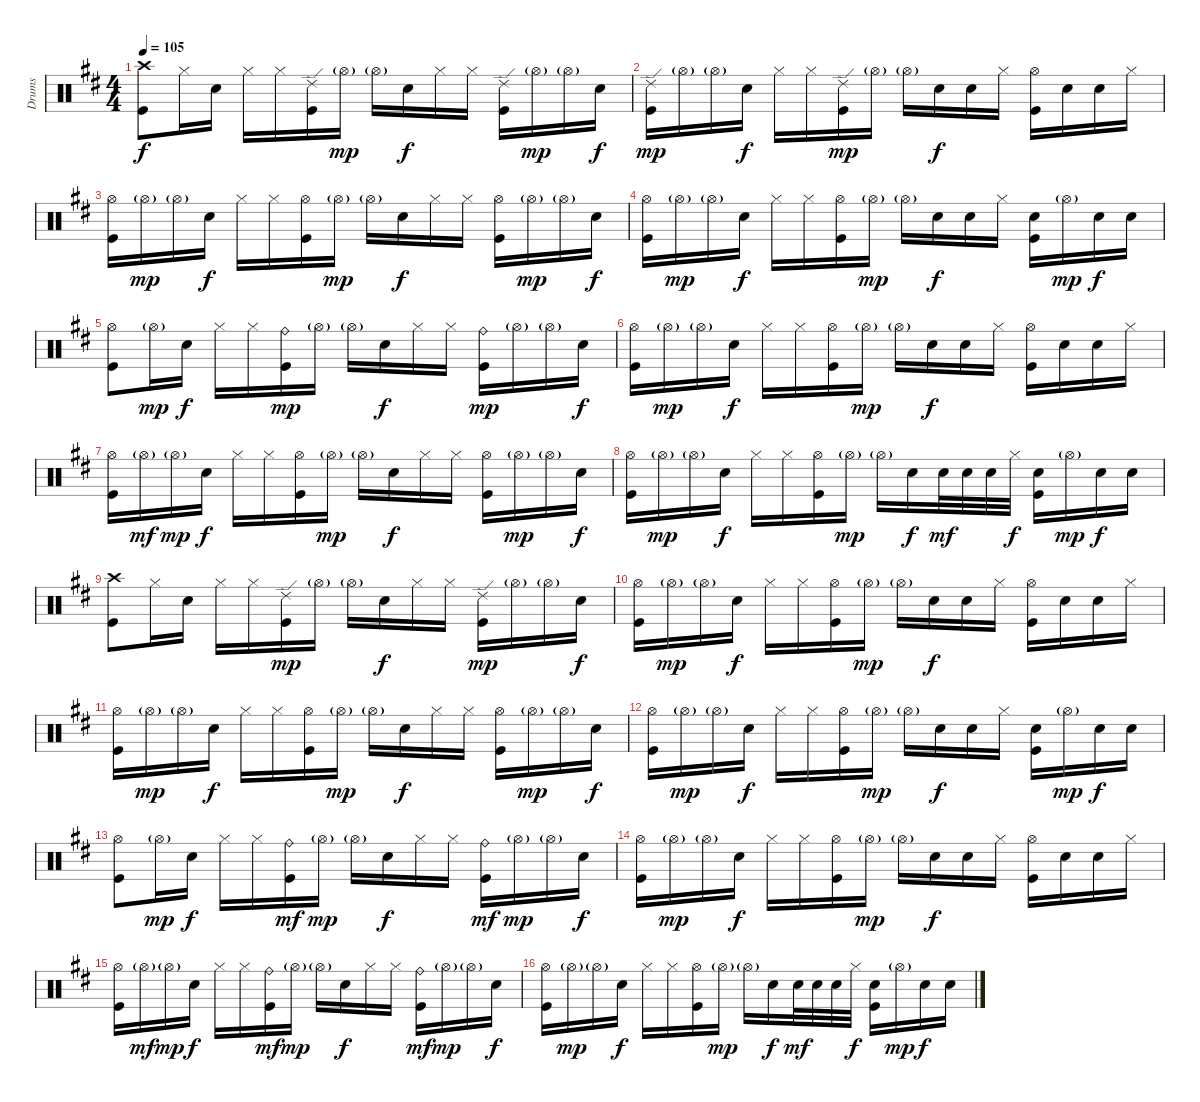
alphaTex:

\track ("Drums" "Drums") {instrument percussion}
\staff {score}
\articulation defaults
\ts (4 4)
\tempo 105
\clef neutral
\ks d
("Crash high (hit)" "Kick (hit)").8{dy f} "Hi-Hat (closed)".16 "Electric Snare (hit)".16 "Hi-Hat (closed)".16 "Hi-Hat (closed)".16 ("Ride (edge) 2" "Kick (hit)").16 "Hi-Hat (open)"{g}.16{dy mp} "Hi-Hat (open)"{g}.16 "Electric Snare (hit)".16{dy f} "Hi-Hat (closed)".16 "Hi-Hat (closed)".16 ("Ride (edge) 2" "Kick (hit)").16 "Hi-Hat (open)"{g}.16{dy mp} "Hi-Hat (open)"{g}.16 "Electric Snare (hit)".16{dy f} |
("Ride (edge) 2" "Kick (hit)").16{dy mp} "Hi-Hat (open)"{g}.16 "Hi-Hat (open)"{g}.16 "Electric Snare (hit)".16{dy f} "Hi-Hat (closed)".16 "Hi-Hat (closed)".16 ("Ride (edge) 2" "Kick (hit)").16{dy mp} "Hi-Hat (open)"{g}.16 "Hi-Hat (open)"{g}.16 "Electric Snare (hit)".16{dy f} "Electric Snare (hit)".16 "Hi-Hat (closed)".16 ("Hi-Hat (open)" "Kick (hit)").16 "Electric Snare (hit)".16 "Electric Snare (hit)".16 "Hi-Hat (closed)".16 |
("Hi-Hat (open)" "Kick (hit)").16 "Hi-Hat (open)"{g}.16{dy mp} "Hi-Hat (open)"{g}.16 "Electric Snare (hit)".16{dy f} "Hi-Hat (closed)".16 "Hi-Hat (closed)".16 ("Hi-Hat (open)" "Kick (hit)").16 "Hi-Hat (open)"{g}.16{dy mp} "Hi-Hat (open)"{g}.16 "Electric Snare (hit)".16{dy f} "Hi-Hat (closed)".16 "Hi-Hat (closed)".16 ("Hi-Hat (open)" "Kick (hit)").16 "Hi-Hat (open)"{g}.16{dy mp} "Hi-Hat (open)"{g}.16 "Electric Snare (hit)".16{dy f} |
("Hi-Hat (open)" "Kick (hit)").16 "Hi-Hat (open)"{g}.16{dy mp} "Hi-Hat (open)"{g}.16 "Electric Snare (hit)".16{dy f} "Hi-Hat (closed)".16 "Hi-Hat (closed)".16 ("Hi-Hat (open)" "Kick (hit)").16 "Hi-Hat (open)"{g}.16{dy mp} "Hi-Hat (open)"{g}.16 "Electric Snare (hit)".16{dy f} "Electric Snare (hit)".16 "Hi-Hat (closed)".16 ("Electric Snare (hit)" "Kick (hit)").16 "Hi-Hat (open)"{g}.16{dy mp} "Electric Snare (hit)".16{dy f} "Electric Snare (hit)".16 |
("Hi-Hat (open)" "Kick (hit)").8 "Hi-Hat (open)"{g}.16{dy mp} "Electric Snare (hit)".16{dy f} "Hi-Hat (closed)".16 "Hi-Hat (closed)".16 ("Ride (bell)" "Kick (hit)").16{dy mp} "Hi-Hat (open)"{g}.16 "Hi-Hat (open)"{g}.16 "Electric Snare (hit)".16{dy f} "Hi-Hat (closed)".16 "Hi-Hat (closed)".16 ("Ride (bell)" "Kick (hit)").16{dy mp} "Hi-Hat (open)"{g}.16 "Hi-Hat (open)"{g}.16 "Electric Snare (hit)".16{dy f} |
("Hi-Hat (open)" "Kick (hit)").16 "Hi-Hat (open)"{g}.16{dy mp} "Hi-Hat (open)"{g}.16 "Electric Snare (hit)".16{dy f} "Hi-Hat (closed)".16 "Hi-Hat (closed)".16 ("Hi-Hat (open)" "Kick (hit)").16 "Hi-Hat (open)"{g}.16{dy mp} "Hi-Hat (open)"{g}.16 "Electric Snare (hit)".16{dy f} "Electric Snare (hit)".16 "Hi-Hat (closed)".16 ("Hi-Hat (open)" "Kick (hit)").16 "Electric Snare (hit)".16 "Electric Snare (hit)".16 "Hi-Hat (closed)".16 |
("Hi-Hat (open)" "Kick (hit)").16 "Hi-Hat (open)"{g}.16{dy mf} "Hi-Hat (open)"{g}.16{dy mp} "Electric Snare (hit)".16{dy f} "Hi-Hat (closed)".16 "Hi-Hat (closed)".16 ("Hi-Hat (open)" "Kick (hit)").16 "Hi-Hat (open)"{g}.16{dy mp} "Hi-Hat (open)"{g}.16 "Electric Snare (hit)".16{dy f} "Hi-Hat (closed)".16 "Hi-Hat (closed)".16 ("Hi-Hat (open)" "Kick (hit)").16 "Hi-Hat (open)"{g}.16{dy mp} "Hi-Hat (open)"{g}.16 "Electric Snare (hit)".16{dy f} |
("Hi-Hat (open)" "Kick (hit)").16 "Hi-Hat (open)"{g}.16{dy mp} "Hi-Hat (open)"{g}.16 "Electric Snare (hit)".16{dy f} "Hi-Hat (closed)".16 "Hi-Hat (closed)".16 ("Hi-Hat (open)" "Kick (hit)").16 "Hi-Hat (open)"{g}.16{dy mp} "Hi-Hat (open)"{g}.16 "Electric Snare (hit)".16{dy f} "Electric Snare (hit)".32{dy mf} "Electric Snare (hit)".32 "Electric Snare (hit)".32 "Hi-Hat (closed)".32{dy f} ("Electric Snare (hit)" "Kick (hit)").16 "Hi-Hat (open)"{g}.16{dy mp} "Electric Snare (hit)".16{dy f} "Electric Snare (hit)".16 |
("Crash high (hit)" "Kick (hit)").8 "Hi-Hat (closed)".16 "Electric Snare (hit)".16 "Hi-Hat (closed)".16 "Hi-Hat (closed)".16 ("Ride (edge) 2" "Kick (hit)").16{dy mp} "Hi-Hat (open)"{g}.16 "Hi-Hat (open)"{g}.16 "Electric Snare (hit)".16{dy f} "Hi-Hat (closed)".16 "Hi-Hat (closed)".16 ("Ride (edge) 2" "Kick (hit)").16{dy mp} "Hi-Hat (open)"{g}.16 "Hi-Hat (open)"{g}.16 "Electric Snare (hit)".16{dy f} |
("Hi-Hat (open)" "Kick (hit)").16 "Hi-Hat (open)"{g}.16{dy mp} "Hi-Hat (open)"{g}.16 "Electric Snare (hit)".16{dy f} "Hi-Hat (closed)".16 "Hi-Hat (closed)".16 ("Hi-Hat (open)" "Kick (hit)").16 "Hi-Hat (open)"{g}.16{dy mp} "Hi-Hat (open)"{g}.16 "Electric Snare (hit)".16{dy f} "Electric Snare (hit)".16 "Hi-Hat (closed)".16 ("Hi-Hat (open)" "Kick (hit)").16 "Electric Snare (hit)".16 "Electric Snare (hit)".16 "Hi-Hat (closed)".16 |
("Hi-Hat (open)" "Kick (hit)").16 "Hi-Hat (open)"{g}.16{dy mp} "Hi-Hat (open)"{g}.16 "Electric Snare (hit)".16{dy f} "Hi-Hat (closed)".16 "Hi-Hat (closed)".16 ("Hi-Hat (open)" "Kick (hit)").16 "Hi-Hat (open)"{g}.16{dy mp} "Hi-Hat (open)"{g}.16 "Electric Snare (hit)".16{dy f} "Hi-Hat (closed)".16 "Hi-Hat (closed)".16 ("Hi-Hat (open)" "Kick (hit)").16 "Hi-Hat (open)"{g}.16{dy mp} "Hi-Hat (open)"{g}.16 "Electric Snare (hit)".16{dy f} |
("Hi-Hat (open)" "Kick (hit)").16 "Hi-Hat (open)"{g}.16{dy mp} "Hi-Hat (open)"{g}.16 "Electric Snare (hit)".16{dy f} "Hi-Hat (closed)".16 "Hi-Hat (closed)".16 ("Hi-Hat (open)" "Kick (hit)").16 "Hi-Hat (open)"{g}.16{dy mp} "Hi-Hat (open)"{g}.16 "Electric Snare (hit)".16{dy f} "Electric Snare (hit)".16 "Hi-Hat (closed)".16 ("Electric Snare (hit)" "Kick (hit)").16 "Hi-Hat (open)"{g}.16{dy mp} "Electric Snare (hit)".16{dy f} "Electric Snare (hit)".16 |
("Hi-Hat (open)" "Kick (hit)").8 "Hi-Hat (open)"{g}.16{dy mp} "Electric Snare (hit)".16{dy f} "Hi-Hat (closed)".16 "Hi-Hat (closed)".16 ("Ride (bell)" "Kick (hit)").16{dy mf} "Hi-Hat (open)"{g}.16{dy mp} "Hi-Hat (open)"{g}.16 "Electric Snare (hit)".16{dy f} "Hi-Hat (closed)".16 "Hi-Hat (closed)".16 ("Ride (bell)" "Kick (hit)").16{dy mf} "Hi-Hat (open)"{g}.16{dy mp} "Hi-Hat (open)"{g}.16 "Electric Snare (hit)".16{dy f} |
("Hi-Hat (open)" "Kick (hit)").16 "Hi-Hat (open)"{g}.16{dy mp} "Hi-Hat (open)"{g}.16 "Electric Snare (hit)".16{dy f} "Hi-Hat (closed)".16 "Hi-Hat (closed)".16 ("Hi-Hat (open)" "Kick (hit)").16 "Hi-Hat (open)"{g}.16{dy mp} "Hi-Hat (open)"{g}.16 "Electric Snare (hit)".16{dy f} "Electric Snare (hit)".16 "Hi-Hat (closed)".16 ("Hi-Hat (open)" "Kick (hit)").16 "Electric Snare (hit)".16 "Electric Snare (hit)".16 "Hi-Hat (closed)".16 |
("Hi-Hat (open)" "Kick (hit)").16 "Hi-Hat (open)"{g}.16{dy mf} "Hi-Hat (open)"{g}.16{dy mp} "Electric Snare (hit)".16{dy f} "Hi-Hat (closed)".16 "Hi-Hat (closed)".16 ("Ride (bell)" "Kick (hit)").16{dy mf} "Hi-Hat (open)"{g}.16{dy mp} "Hi-Hat (open)"{g}.16 "Electric Snare (hit)".16{dy f} "Hi-Hat (closed)".16 "Hi-Hat (closed)".16 ("Ride (bell)" "Kick (hit)").16{dy mf} "Hi-Hat (open)"{g}.16{dy mp} "Hi-Hat (open)"{g}.16 "Electric Snare (hit)".16{dy f} |
("Hi-Hat (open)" "Kick (hit)").16 "Hi-Hat (open)"{g}.16{dy mp} "Hi-Hat (open)"{g}.16 "Electric Snare (hit)".16{dy f} "Hi-Hat (closed)".16 "Hi-Hat (closed)".16 ("Hi-Hat (open)" "Kick (hit)").16 "Hi-Hat (open)"{g}.16{dy mp} "Hi-Hat (open)"{g}.16 "Electric Snare (hit)".16{dy f} "Electric Snare (hit)".32{dy mf} "Electric Snare (hit)".32 "Electric Snare (hit)".32 "Hi-Hat (closed)".32{dy f} ("Electric Snare (hit)" "Kick (hit)").16 "Hi-Hat (open)"{g}.16{dy mp} "Electric Snare (hit)".16{dy f} "Electric Snare (hit)".16
